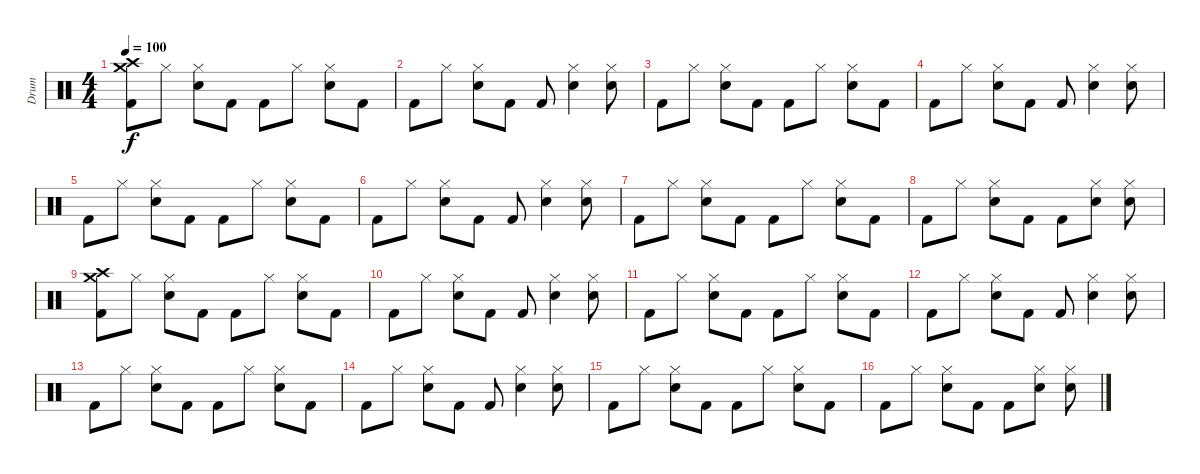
\track ("Drum" "Drum") {instrument percussion}
\staff {score}
\articulation defaults
\ts (4 4)
\tempo 100
\clef neutral
\ks c
("Crash high (hit)" "Crash medium (hit)" "Kick (hit) 2").8{dy f} "Hi-Hat (closed)".8 ("Hi-Hat (closed)" "Electric Snare (hit)").8 "Kick (hit) 2".8 "Kick (hit) 2".8 "Hi-Hat (closed)".8 ("Hi-Hat (closed)" "Electric Snare (hit)").8 "Kick (hit) 2".8 |
"Kick (hit) 2".8 "Hi-Hat (closed)".8 ("Hi-Hat (closed)" "Electric Snare (hit)").8 "Kick (hit) 2".8 "Kick (hit) 2".8 ("Hi-Hat (closed)" "Electric Snare (hit)").4 ("Hi-Hat (closed)" "Electric Snare (hit)").8 |
"Kick (hit) 2".8 "Hi-Hat (closed)".8 ("Hi-Hat (closed)" "Electric Snare (hit)").8 "Kick (hit) 2".8 "Kick (hit) 2".8 "Hi-Hat (closed)".8 ("Hi-Hat (closed)" "Electric Snare (hit)").8 "Kick (hit) 2".8 |
"Kick (hit) 2".8 "Hi-Hat (closed)".8 ("Hi-Hat (closed)" "Electric Snare (hit)").8 "Kick (hit) 2".8 "Kick (hit) 2".8 ("Hi-Hat (closed)" "Electric Snare (hit)").4 ("Hi-Hat (closed)" "Electric Snare (hit)").8 |
"Kick (hit) 2".8 "Hi-Hat (closed)".8 ("Hi-Hat (closed)" "Electric Snare (hit)").8 "Kick (hit) 2".8 "Kick (hit) 2".8 "Hi-Hat (closed)".8 ("Hi-Hat (closed)" "Electric Snare (hit)").8 "Kick (hit) 2".8 |
"Kick (hit) 2".8 "Hi-Hat (closed)".8 ("Hi-Hat (closed)" "Electric Snare (hit)").8 "Kick (hit) 2".8 "Kick (hit) 2".8 ("Hi-Hat (closed)" "Electric Snare (hit)").4 ("Hi-Hat (closed)" "Electric Snare (hit)").8 |
"Kick (hit) 2".8 "Hi-Hat (closed)".8 ("Hi-Hat (closed)" "Electric Snare (hit)").8 "Kick (hit) 2".8 "Kick (hit) 2".8 "Hi-Hat (closed)".8 ("Hi-Hat (closed)" "Electric Snare (hit)").8 "Kick (hit) 2".8 |
"Kick (hit) 2".8 "Hi-Hat (closed)".8 ("Hi-Hat (closed)" "Electric Snare (hit)").8 "Kick (hit) 2".8 "Kick (hit) 2".8 ("Hi-Hat (closed)" "Electric Snare (hit)").8 ("Hi-Hat (closed)" "Electric Snare (hit)").8 |
("Crash high (hit)" "Crash medium (hit)" "Kick (hit) 2").8 "Hi-Hat (closed)".8 ("Hi-Hat (closed)" "Electric Snare (hit)").8 "Kick (hit) 2".8 "Kick (hit) 2".8 "Hi-Hat (closed)".8 ("Hi-Hat (closed)" "Electric Snare (hit)").8 "Kick (hit) 2".8 |
"Kick (hit) 2".8 "Hi-Hat (closed)".8 ("Hi-Hat (closed)" "Electric Snare (hit)").8 "Kick (hit) 2".8 "Kick (hit) 2".8 ("Hi-Hat (closed)" "Electric Snare (hit)").4 ("Hi-Hat (closed)" "Electric Snare (hit)").8 |
"Kick (hit) 2".8 "Hi-Hat (closed)".8 ("Hi-Hat (closed)" "Electric Snare (hit)").8 "Kick (hit) 2".8 "Kick (hit) 2".8 "Hi-Hat (closed)".8 ("Hi-Hat (closed)" "Electric Snare (hit)").8 "Kick (hit) 2".8 |
"Kick (hit) 2".8 "Hi-Hat (closed)".8 ("Hi-Hat (closed)" "Electric Snare (hit)").8 "Kick (hit) 2".8 "Kick (hit) 2".8 ("Hi-Hat (closed)" "Electric Snare (hit)").4 ("Hi-Hat (closed)" "Electric Snare (hit)").8 |
"Kick (hit) 2".8 "Hi-Hat (closed)".8 ("Hi-Hat (closed)" "Electric Snare (hit)").8 "Kick (hit) 2".8 "Kick (hit) 2".8 "Hi-Hat (closed)".8 ("Hi-Hat (closed)" "Electric Snare (hit)").8 "Kick (hit) 2".8 |
"Kick (hit) 2".8 "Hi-Hat (closed)".8 ("Hi-Hat (closed)" "Electric Snare (hit)").8 "Kick (hit) 2".8 "Kick (hit) 2".8 ("Hi-Hat (closed)" "Electric Snare (hit)").4 ("Hi-Hat (closed)" "Electric Snare (hit)").8 |
"Kick (hit) 2".8 "Hi-Hat (closed)".8 ("Hi-Hat (closed)" "Electric Snare (hit)").8 "Kick (hit) 2".8 "Kick (hit) 2".8 "Hi-Hat (closed)".8 ("Hi-Hat (closed)" "Electric Snare (hit)").8 "Kick (hit) 2".8 |
"Kick (hit) 2".8 "Hi-Hat (closed)".8 ("Hi-Hat (closed)" "Electric Snare (hit)").8 "Kick (hit) 2".8 "Kick (hit) 2".8 ("Hi-Hat (closed)" "Electric Snare (hit)").8 ("Hi-Hat (closed)" "Electric Snare (hit)").8
